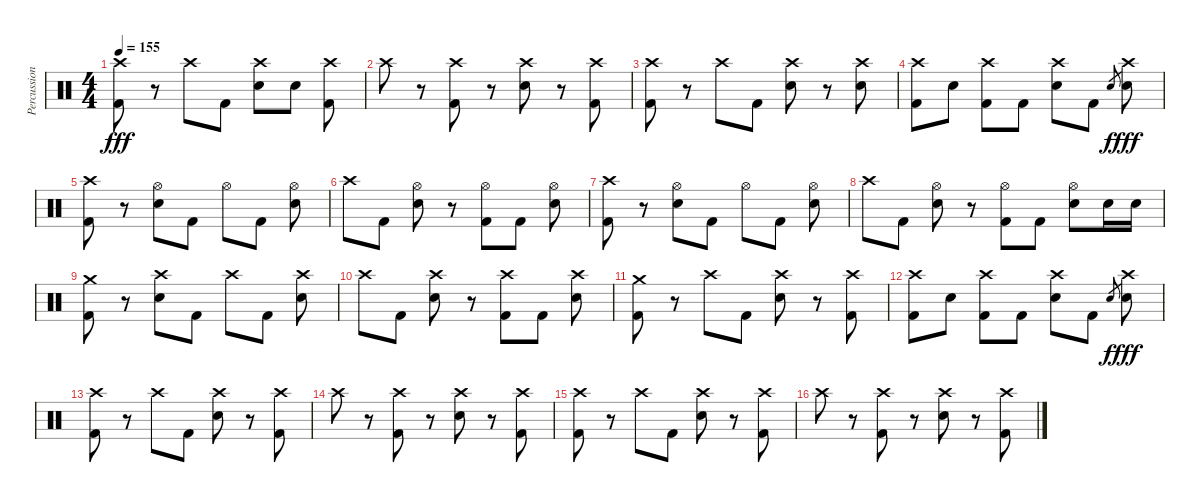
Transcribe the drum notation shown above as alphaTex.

\track ("Percussion" "Percussion") {instrument percussion}
\staff {score}
\articulation defaults
\ts (4 4)
\tempo 155
\clef neutral
\ks c
("Crash high (hit)" "Kick (hit) 2").8{dy fff} r.8 "Crash high (hit)".8 "Kick (hit) 2".8 ("Crash high (hit)" "Electric Snare (hit)").8 "Electric Snare (hit)".8 ("Crash high (hit)" "Kick (hit) 2").8 |
"Crash high (hit)".8 r.8 ("Crash high (hit)" "Kick (hit) 2").8 r.8 ("Crash high (hit)" "Electric Snare (hit)").8 r.8 ("Crash high (hit)" "Kick (hit) 2").8 |
("Crash high (hit)" "Kick (hit) 2").8 r.8 "Crash high (hit)".8 "Kick (hit) 2".8 ("Crash high (hit)" "Electric Snare (hit)").8 r.8 ("Crash high (hit)" "Electric Snare (hit)").8 |
("Crash high (hit)" "Kick (hit) 2").8 "Electric Snare (hit)".8 ("Crash high (hit)" "Kick (hit) 2").8 "Kick (hit) 2".8 ("Crash high (hit)" "Electric Snare (hit)").8 "Kick (hit) 2".8 "Electric Snare (hit)".8{gr dy f} ("Crash high (hit)" "Electric Snare (hit)").8{dy fff} |
("Crash high (hit)" "Kick (hit) 2").8 r.8 ("Hi-Hat (open)" "Electric Snare (hit)").8 "Kick (hit) 2".8 "Hi-Hat (open)".8 "Kick (hit) 2".8 ("Hi-Hat (open)" "Electric Snare (hit)").8 |
"Crash high (hit)".8 "Kick (hit) 2".8 ("Hi-Hat (open)" "Electric Snare (hit)").8 r.8 ("Hi-Hat (open)" "Kick (hit) 2").8 "Kick (hit) 2".8 ("Hi-Hat (open)" "Electric Snare (hit)").8 |
("Crash high (hit)" "Kick (hit) 2").8 r.8 ("Hi-Hat (open)" "Electric Snare (hit)").8 "Kick (hit) 2".8 "Hi-Hat (open)".8 "Kick (hit) 2".8 ("Hi-Hat (open)" "Electric Snare (hit)").8 |
"Crash high (hit)".8 "Kick (hit) 2".8 ("Hi-Hat (open)" "Electric Snare (hit)").8 r.8 ("Hi-Hat (open)" "Kick (hit) 2").8 "Kick (hit) 2".8 ("Hi-Hat (open)" "Electric Snare (hit)").8 "Electric Snare (hit)".16 "Electric Snare (hit)".16 |
("Crash medium (hit)" "Kick (hit) 2").8 r.8 ("Crash high (hit)" "Electric Snare (hit)").8 "Kick (hit) 2".8 "Crash high (hit)".8 "Kick (hit) 2".8 ("Crash high (hit)" "Electric Snare (hit)").8 |
"Crash high (hit)".8 "Kick (hit) 2".8 ("Crash high (hit)" "Electric Snare (hit)").8 r.8 ("Crash high (hit)" "Kick (hit) 2").8 "Kick (hit) 2".8 ("Crash high (hit)" "Electric Snare (hit)").8 |
("Crash medium (hit)" "Kick (hit) 2").8 r.8 "Crash high (hit)".8 "Kick (hit) 2".8 ("Crash high (hit)" "Electric Snare (hit)").8 r.8 ("Crash high (hit)" "Kick (hit) 2").8 |
("Crash high (hit)" "Kick (hit) 2").8 "Electric Snare (hit)".8 ("Crash high (hit)" "Kick (hit) 2").8 "Kick (hit) 2".8 ("Crash high (hit)" "Electric Snare (hit)").8 "Kick (hit) 2".8 "Electric Snare (hit)".8{gr dy f} ("Crash high (hit)" "Electric Snare (hit)").8{dy fff} |
("Crash high (hit)" "Kick (hit) 2").8 r.8 "Crash high (hit)".8 "Kick (hit) 2".8 ("Crash high (hit)" "Electric Snare (hit)").8 r.8 ("Crash high (hit)" "Kick (hit) 2").8 |
"Crash high (hit)".8 r.8 ("Crash high (hit)" "Kick (hit) 2").8 r.8 ("Crash high (hit)" "Electric Snare (hit)").8 r.8 ("Crash high (hit)" "Kick (hit) 2").8 |
("Crash high (hit)" "Kick (hit) 2").8 r.8 "Crash high (hit)".8 "Kick (hit) 2".8 ("Crash high (hit)" "Electric Snare (hit)").8 r.8 ("Crash high (hit)" "Kick (hit) 2").8 |
"Crash high (hit)".8 r.8 ("Crash high (hit)" "Kick (hit) 2").8 r.8 ("Crash high (hit)" "Electric Snare (hit)").8 r.8 ("Crash high (hit)" "Kick (hit) 2").8
